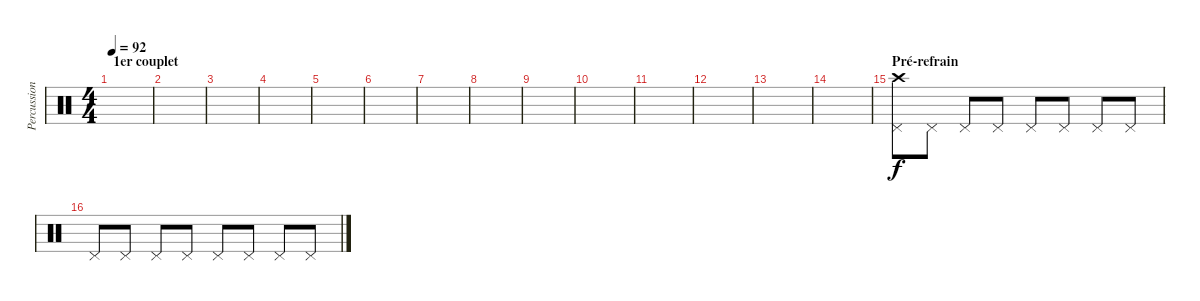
\track ("Percussions" "Percussion") {instrument percussion}
\staff {score}
\articulation defaults
\ts (4 4)
\section ("" "1er couplet")
\tempo 92
\clef neutral
\ks c
|
|
|
|
|
|
|
|
|
|
|
|
|
|
\section ("" "Pré-refrain")
("Pedal Hi-Hat (hit)" "Crash high (hit)").8 "Pedal Hi-Hat (hit)".8 "Pedal Hi-Hat (hit)".8 "Pedal Hi-Hat (hit)".8 "Pedal Hi-Hat (hit)".8 "Pedal Hi-Hat (hit)".8 "Pedal Hi-Hat (hit)".8 "Pedal Hi-Hat (hit)".8 |
"Pedal Hi-Hat (hit)".8 "Pedal Hi-Hat (hit)".8 "Pedal Hi-Hat (hit)".8 "Pedal Hi-Hat (hit)".8 "Pedal Hi-Hat (hit)".8 "Pedal Hi-Hat (hit)".8 "Pedal Hi-Hat (hit)".8 "Pedal Hi-Hat (hit)".8
